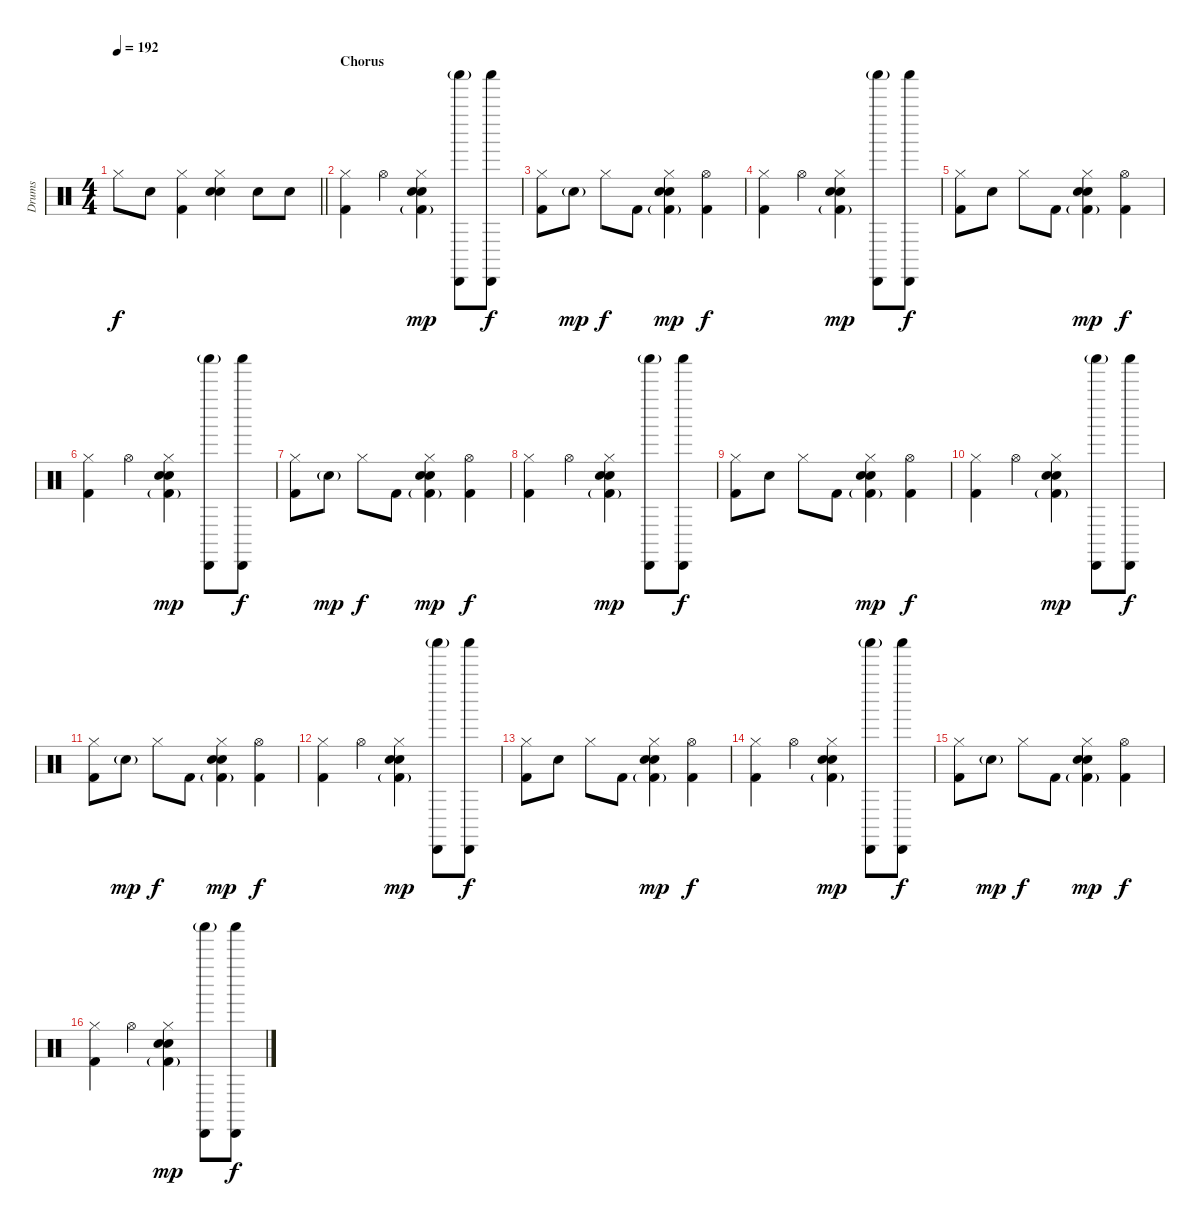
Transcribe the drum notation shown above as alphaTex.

\track ("Drums" "Drums") {instrument percussion}
\staff {score}
\articulation defaults
\ts (4 4)
\tempo 192
\clef neutral
\barLineRight lightlight
\ks c "Hi-Hat (closed)".8{dy f} "Electric Snare (hit)".8
("Hi-Hat (closed)" "Kick (hit) 2").4 ("Hi-Hat (closed)" "Electric Snare (hit)" "Hand Clap (hit)").4 "Electric Snare (hit)".8 "Electric Snare (hit)".8 |
\section ("" "Chorus")
("Hi-Hat (closed)" "Kick (hit) 2").4 "Hi-Hat (open)".4 ("Hi-Hat (closed)" "Hand Clap (hit)" "Electric Snare (hit)" "Kick (hit) 2"{g}).4{dy mp} ("Shaker (hit)"{g} "Cabasa (hit)").8 ("Shaker (hit)" "Cabasa (hit)").8{dy f} |
("Hi-Hat (closed)" "Kick (hit) 2").8 "Electric Snare (hit)"{g}.8{dy mp} "Hi-Hat (closed)".8{dy f} "Kick (hit) 2".8 ("Hi-Hat (closed)" "Hand Clap (hit)" "Electric Snare (hit)" "Kick (hit) 2"{g}).4{dy mp} ("Hi-Hat (open)" "Kick (hit) 2").4{dy f} |
("Hi-Hat (closed)" "Kick (hit) 2").4 "Hi-Hat (open)".4 ("Hi-Hat (closed)" "Hand Clap (hit)" "Electric Snare (hit)" "Kick (hit) 2"{g}).4{dy mp} ("Shaker (hit)"{g} "Cabasa (hit)").8 ("Shaker (hit)" "Cabasa (hit)").8{dy f} |
("Hi-Hat (closed)" "Kick (hit) 2").8 "Electric Snare (hit)".8 "Hi-Hat (closed)".8 "Kick (hit) 2".8 ("Hi-Hat (closed)" "Hand Clap (hit)" "Electric Snare (hit)" "Kick (hit) 2"{g}).4{dy mp} ("Hi-Hat (open)" "Kick (hit) 2").4{dy f} |
("Hi-Hat (closed)" "Kick (hit) 2").4 "Hi-Hat (open)".4 ("Hi-Hat (closed)" "Hand Clap (hit)" "Electric Snare (hit)" "Kick (hit) 2"{g}).4{dy mp} ("Shaker (hit)"{g} "Cabasa (hit)").8 ("Shaker (hit)" "Cabasa (hit)").8{dy f} |
("Hi-Hat (closed)" "Kick (hit) 2").8 "Electric Snare (hit)"{g}.8{dy mp} "Hi-Hat (closed)".8{dy f} "Kick (hit) 2".8 ("Hi-Hat (closed)" "Hand Clap (hit)" "Electric Snare (hit)" "Kick (hit) 2"{g}).4{dy mp} ("Hi-Hat (open)" "Kick (hit) 2").4{dy f} |
("Hi-Hat (closed)" "Kick (hit) 2").4 "Hi-Hat (open)".4 ("Hi-Hat (closed)" "Hand Clap (hit)" "Electric Snare (hit)" "Kick (hit) 2"{g}).4{dy mp} ("Shaker (hit)"{g} "Cabasa (hit)").8 ("Shaker (hit)" "Cabasa (hit)").8{dy f} |
("Hi-Hat (closed)" "Kick (hit) 2").8 "Electric Snare (hit)".8 "Hi-Hat (closed)".8 "Kick (hit) 2".8 ("Hi-Hat (closed)" "Hand Clap (hit)" "Electric Snare (hit)" "Kick (hit) 2"{g}).4{dy mp} ("Hi-Hat (open)" "Kick (hit) 2").4{dy f} |
("Hi-Hat (closed)" "Kick (hit) 2").4 "Hi-Hat (open)".4 ("Hi-Hat (closed)" "Hand Clap (hit)" "Electric Snare (hit)" "Kick (hit) 2"{g}).4{dy mp} ("Shaker (hit)"{g} "Cabasa (hit)").8 ("Shaker (hit)" "Cabasa (hit)").8{dy f} |
("Hi-Hat (closed)" "Kick (hit) 2").8 "Electric Snare (hit)"{g}.8{dy mp} "Hi-Hat (closed)".8{dy f} "Kick (hit) 2".8 ("Hi-Hat (closed)" "Hand Clap (hit)" "Electric Snare (hit)" "Kick (hit) 2"{g}).4{dy mp} ("Hi-Hat (open)" "Kick (hit) 2").4{dy f} |
("Hi-Hat (closed)" "Kick (hit) 2").4 "Hi-Hat (open)".4 ("Hi-Hat (closed)" "Hand Clap (hit)" "Electric Snare (hit)" "Kick (hit) 2"{g}).4{dy mp} ("Shaker (hit)"{g} "Cabasa (hit)").8 ("Shaker (hit)" "Cabasa (hit)").8{dy f} |
("Hi-Hat (closed)" "Kick (hit) 2").8 "Electric Snare (hit)".8 "Hi-Hat (closed)".8 "Kick (hit) 2".8 ("Hi-Hat (closed)" "Hand Clap (hit)" "Electric Snare (hit)" "Kick (hit) 2"{g}).4{dy mp} ("Hi-Hat (open)" "Kick (hit) 2").4{dy f} |
("Hi-Hat (closed)" "Kick (hit) 2").4 "Hi-Hat (open)".4 ("Hi-Hat (closed)" "Hand Clap (hit)" "Electric Snare (hit)" "Kick (hit) 2"{g}).4{dy mp} ("Shaker (hit)"{g} "Cabasa (hit)").8 ("Shaker (hit)" "Cabasa (hit)").8{dy f} |
("Hi-Hat (closed)" "Kick (hit) 2").8 "Electric Snare (hit)"{g}.8{dy mp} "Hi-Hat (closed)".8{dy f} "Kick (hit) 2".8 ("Hi-Hat (closed)" "Hand Clap (hit)" "Electric Snare (hit)" "Kick (hit) 2"{g}).4{dy mp} ("Hi-Hat (open)" "Kick (hit) 2").4{dy f} |
("Hi-Hat (closed)" "Kick (hit) 2").4 "Hi-Hat (open)".4 ("Hi-Hat (closed)" "Hand Clap (hit)" "Electric Snare (hit)" "Kick (hit) 2"{g}).4{dy mp} ("Shaker (hit)"{g} "Cabasa (hit)").8 ("Shaker (hit)" "Cabasa (hit)").8{dy f}
